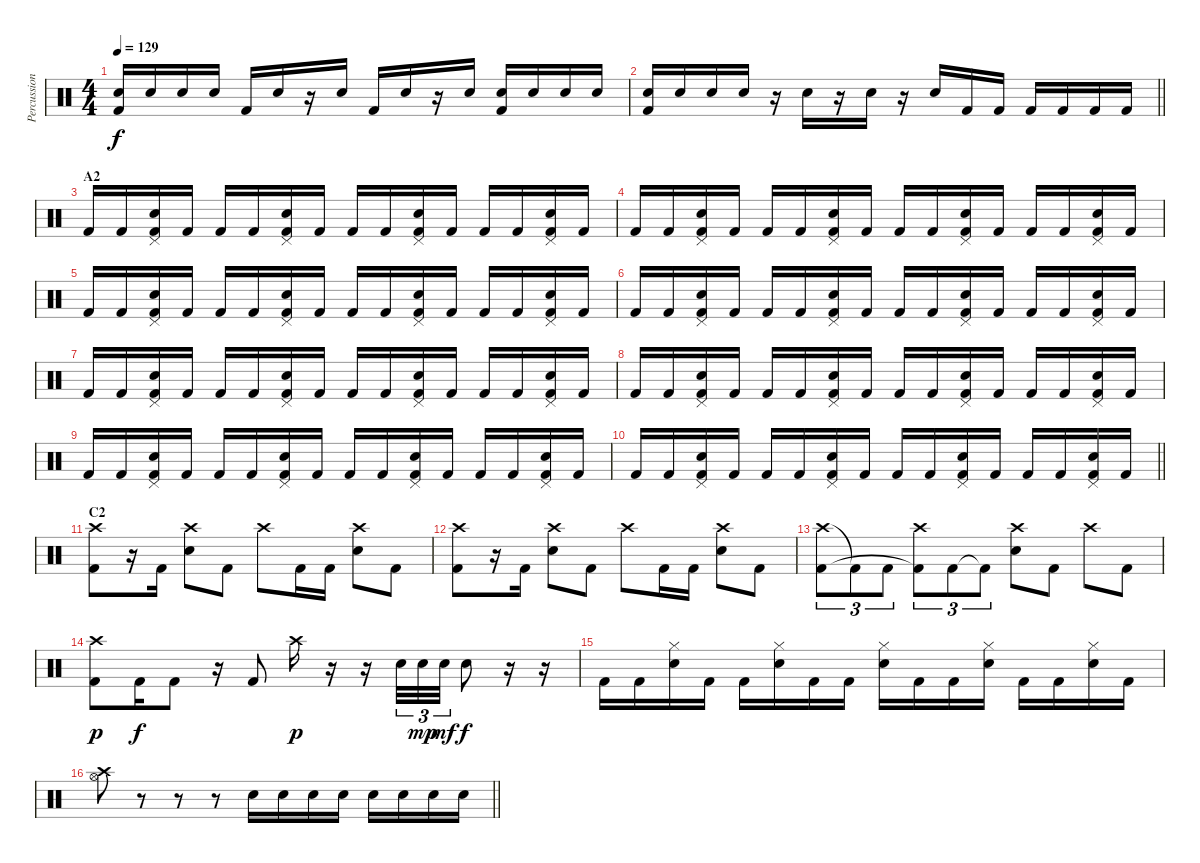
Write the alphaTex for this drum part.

\track ("Percussion" "Percussion") {instrument percussion}
\staff {score}
\articulation defaults
\ts (4 4)
\tempo 129
\clef neutral
\ks c
("Snare (hit) 2" "Kick (hit) 2").16{dy f} "Snare (hit) 2".16 "Snare (hit) 2".16 "Snare (hit) 2".16 "Kick (hit) 2".16 "Snare (hit) 2".16 r.16 "Snare (hit) 2".16 "Kick (hit) 2".16 "Snare (hit) 2".16 r.16 "Snare (hit) 2".16 ("Snare (hit) 2" "Kick (hit) 2").16 "Snare (hit) 2".16 "Snare (hit) 2".16 "Snare (hit) 2".16 |
\barLineRight lightlight
("Snare (hit) 2" "Kick (hit) 2").16 "Snare (hit) 2".16 "Snare (hit) 2".16 "Snare (hit) 2".16 r.16 "Snare (hit) 2".16 r.16 "Snare (hit) 2".16 r.16 "Snare (hit) 2".16 "Kick (hit) 2".16 "Kick (hit) 2".16 "Kick (hit) 2".16 "Kick (hit) 2".16 "Kick (hit) 2".16 "Kick (hit) 2".16 |
\section ("" "A2")
"Kick (hit) 2".16 "Kick (hit) 2".16 ("Pedal Hi-Hat (hit)" "Snare (hit) 2" "Kick (hit) 2").16 "Kick (hit) 2".16 "Kick (hit) 2".16 "Kick (hit) 2".16 ("Pedal Hi-Hat (hit)" "Snare (hit) 2" "Kick (hit) 2").16 "Kick (hit) 2".16 "Kick (hit) 2".16 "Kick (hit) 2".16 ("Pedal Hi-Hat (hit)" "Snare (hit) 2" "Kick (hit) 2").16 "Kick (hit) 2".16 "Kick (hit) 2".16 "Kick (hit) 2".16 ("Pedal Hi-Hat (hit)" "Snare (hit) 2" "Kick (hit) 2").16 "Kick (hit) 2".16 |
"Kick (hit) 2".16 "Kick (hit) 2".16 ("Pedal Hi-Hat (hit)" "Snare (hit) 2" "Kick (hit) 2").16 "Kick (hit) 2".16 "Kick (hit) 2".16 "Kick (hit) 2".16 ("Pedal Hi-Hat (hit)" "Snare (hit) 2" "Kick (hit) 2").16 "Kick (hit) 2".16 "Kick (hit) 2".16 "Kick (hit) 2".16 ("Pedal Hi-Hat (hit)" "Snare (hit) 2" "Kick (hit) 2").16 "Kick (hit) 2".16 "Kick (hit) 2".16 "Kick (hit) 2".16 ("Pedal Hi-Hat (hit)" "Snare (hit) 2" "Kick (hit) 2").16 "Kick (hit) 2".16 |
"Kick (hit) 2".16 "Kick (hit) 2".16 ("Pedal Hi-Hat (hit)" "Snare (hit) 2" "Kick (hit) 2").16 "Kick (hit) 2".16 "Kick (hit) 2".16 "Kick (hit) 2".16 ("Pedal Hi-Hat (hit)" "Snare (hit) 2" "Kick (hit) 2").16 "Kick (hit) 2".16 "Kick (hit) 2".16 "Kick (hit) 2".16 ("Pedal Hi-Hat (hit)" "Snare (hit) 2" "Kick (hit) 2").16 "Kick (hit) 2".16 "Kick (hit) 2".16 "Kick (hit) 2".16 ("Pedal Hi-Hat (hit)" "Snare (hit) 2" "Kick (hit) 2").16 "Kick (hit) 2".16 |
"Kick (hit) 2".16 "Kick (hit) 2".16 ("Pedal Hi-Hat (hit)" "Snare (hit) 2" "Kick (hit) 2").16 "Kick (hit) 2".16 "Kick (hit) 2".16 "Kick (hit) 2".16 ("Pedal Hi-Hat (hit)" "Snare (hit) 2" "Kick (hit) 2").16 "Kick (hit) 2".16 "Kick (hit) 2".16 "Kick (hit) 2".16 ("Pedal Hi-Hat (hit)" "Snare (hit) 2" "Kick (hit) 2").16 "Kick (hit) 2".16 "Kick (hit) 2".16 "Kick (hit) 2".16 ("Pedal Hi-Hat (hit)" "Snare (hit) 2" "Kick (hit) 2").16 "Kick (hit) 2".16 |
"Kick (hit) 2".16 "Kick (hit) 2".16 ("Pedal Hi-Hat (hit)" "Snare (hit) 2" "Kick (hit) 2").16 "Kick (hit) 2".16 "Kick (hit) 2".16 "Kick (hit) 2".16 ("Pedal Hi-Hat (hit)" "Snare (hit) 2" "Kick (hit) 2").16 "Kick (hit) 2".16 "Kick (hit) 2".16 "Kick (hit) 2".16 ("Pedal Hi-Hat (hit)" "Snare (hit) 2" "Kick (hit) 2").16 "Kick (hit) 2".16 "Kick (hit) 2".16 "Kick (hit) 2".16 ("Pedal Hi-Hat (hit)" "Snare (hit) 2" "Kick (hit) 2").16 "Kick (hit) 2".16 |
"Kick (hit) 2".16 "Kick (hit) 2".16 ("Pedal Hi-Hat (hit)" "Snare (hit) 2" "Kick (hit) 2").16 "Kick (hit) 2".16 "Kick (hit) 2".16 "Kick (hit) 2".16 ("Pedal Hi-Hat (hit)" "Snare (hit) 2" "Kick (hit) 2").16 "Kick (hit) 2".16 "Kick (hit) 2".16 "Kick (hit) 2".16 ("Pedal Hi-Hat (hit)" "Snare (hit) 2" "Kick (hit) 2").16 "Kick (hit) 2".16 "Kick (hit) 2".16 "Kick (hit) 2".16 ("Pedal Hi-Hat (hit)" "Snare (hit) 2" "Kick (hit) 2").16 "Kick (hit) 2".16 |
"Kick (hit) 2".16 "Kick (hit) 2".16 ("Pedal Hi-Hat (hit)" "Snare (hit) 2" "Kick (hit) 2").16 "Kick (hit) 2".16 "Kick (hit) 2".16 "Kick (hit) 2".16 ("Pedal Hi-Hat (hit)" "Snare (hit) 2" "Kick (hit) 2").16 "Kick (hit) 2".16 "Kick (hit) 2".16 "Kick (hit) 2".16 ("Pedal Hi-Hat (hit)" "Snare (hit) 2" "Kick (hit) 2").16 "Kick (hit) 2".16 "Kick (hit) 2".16 "Kick (hit) 2".16 ("Pedal Hi-Hat (hit)" "Snare (hit) 2" "Kick (hit) 2").16 "Kick (hit) 2".16 |
\barLineRight lightlight "Kick (hit) 2".16 "Kick (hit) 2".16
("Pedal Hi-Hat (hit)" "Snare (hit) 2" "Kick (hit) 2").16 "Kick (hit) 2".16 "Kick (hit) 2".16 "Kick (hit) 2".16 ("Pedal Hi-Hat (hit)" "Snare (hit) 2" "Kick (hit) 2").16 "Kick (hit) 2".16 "Kick (hit) 2".16 "Kick (hit) 2".16 ("Pedal Hi-Hat (hit)" "Snare (hit) 2" "Kick (hit) 2").16 "Kick (hit) 2".16 "Kick (hit) 2".16 "Kick (hit) 2".16 ("Pedal Hi-Hat (hit)" "Snare (hit) 2" "Kick (hit) 2").16 "Kick (hit) 2".16 |
\section ("" "C2")
("Crash high (hit)" "Kick (hit) 2").8 r.16 "Kick (hit) 2".16 ("Crash high (hit)" "Snare (hit) 2").8 "Kick (hit) 2".8 "Crash high (hit)".8 "Kick (hit) 2".16 "Kick (hit) 2".16 ("Crash high (hit)" "Snare (hit) 2").8 "Kick (hit) 2".8 |
("Crash high (hit)" "Kick (hit) 2").8 r.16 "Kick (hit) 2".16 ("Crash high (hit)" "Snare (hit) 2").8 "Kick (hit) 2".8 "Crash high (hit)".8 "Kick (hit) 2".16 "Kick (hit) 2".16 ("Crash high (hit)" "Snare (hit) 2").8 "Kick (hit) 2".8 |
("Crash high (hit)" "Kick (hit) 2").8{tu (3 2)} "Kick (hit) 2"{t}.8{tu (3 2)} "Kick (hit) 2".8{tu (3 2)} ("Crash high (hit)" "Kick (hit) 2"{t}).8{tu (3 2)} "Kick (hit) 2".8{tu (3 2)} "Kick (hit) 2"{t}.8{tu (3 2)} ("Crash high (hit)" "Snare (hit) 2").8 "Kick (hit) 2".8 "Crash high (hit)".8 "Kick (hit) 2".8 |
("Crash high (hit)" "Kick (hit) 2").8{dy p} "Kick (hit) 2".16{dy f} "Kick (hit) 2".8 r.16 "Kick (hit) 2".8 "Crash high (hit)".16{dy p} r.16 r.16 "Snare (hit) 2".32{tu (3 2)} "Snare (hit) 2".32{tu (3 2) dy mp} "Snare (hit) 2".32{tu (3 2) dy mf} "Snare (hit) 2".8{dy f} r.16 r.16 |
"Kick (hit) 2".16 "Kick (hit) 2".16 ("Hi-Hat (closed)" "Snare (hit) 2").16 "Kick (hit) 2".16 "Kick (hit) 2".16 ("Hi-Hat (closed)" "Snare (hit) 2").16 "Kick (hit) 2".16 "Kick (hit) 2".16 ("Hi-Hat (closed)" "Snare (hit) 2").16 "Kick (hit) 2".16 "Kick (hit) 2".16 ("Hi-Hat (closed)" "Snare (hit) 2").16 "Kick (hit) 2".16 "Kick (hit) 2".16 ("Hi-Hat (closed)" "Snare (hit) 2").16 "Kick (hit) 2".16 |
\barLineRight lightlight
("Crash high (hit)" "Hi-Hat (open)").8 r.8 r.8 r.8 "Snare (hit) 2".16 "Snare (hit) 2".16 "Snare (hit) 2".16 "Snare (hit) 2".16 "Snare (hit) 2".16 "Snare (hit) 2".16 "Snare (hit) 2".16 "Snare (hit) 2".16
